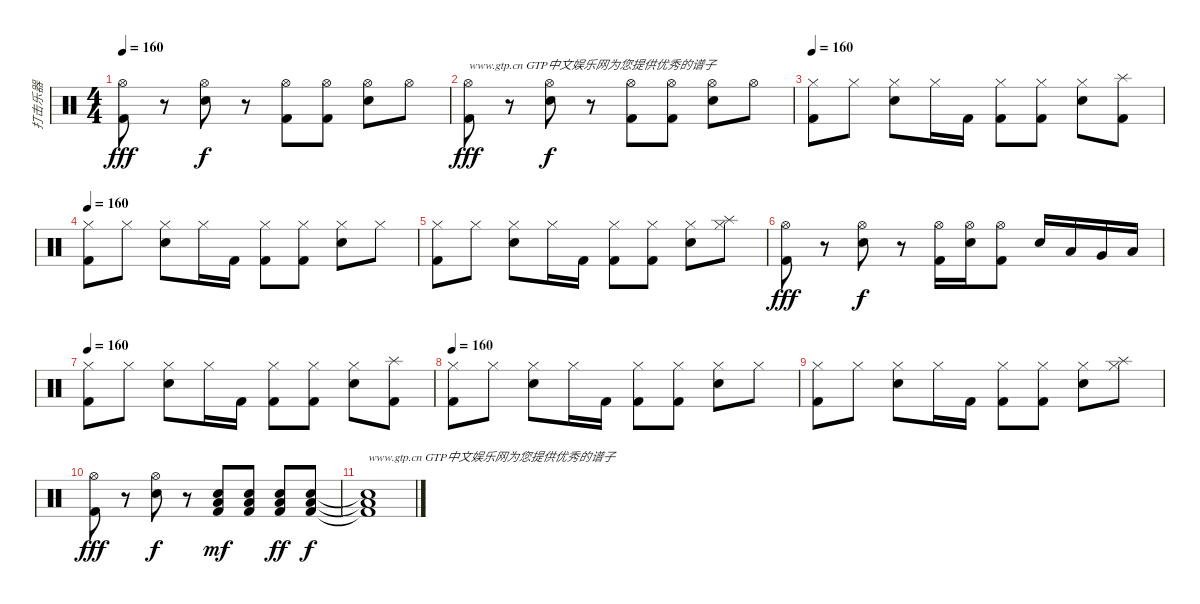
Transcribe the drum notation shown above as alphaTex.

\track ("打击乐器" "打击乐器") {instrument percussion}
\staff {score}
\articulation defaults
\ts (4 4)
\tempo 160
\clef neutral
\ks c
("Hi-Hat (open)" "Kick (hit) 2").8{dy fff} r.8 ("Hi-Hat (open)" "Electric Snare (hit)").8{dy f} r.8 ("Hi-Hat (open)" "Kick (hit) 2").8 ("Hi-Hat (open)" "Kick (hit) 2").8 ("Hi-Hat (open)" "Electric Snare (hit)").8 "Hi-Hat (open)".8 |
("Hi-Hat (open)" "Kick (hit) 2").8{txt "www.gtp.cn GTP中文娱乐网为您提供优秀的谱子" dy fff} r.8 ("Hi-Hat (open)" "Electric Snare (hit)").8{dy f} r.8 ("Hi-Hat (open)" "Kick (hit) 2").8 ("Hi-Hat (open)" "Kick (hit) 2").8 ("Hi-Hat (open)" "Electric Snare (hit)").8 "Hi-Hat (open)".8 |
\tempo 160
("Kick (hit) 2" "Hi-Hat (closed)").8 "Hi-Hat (closed)".8 ("Electric Snare (hit)" "Hi-Hat (closed)").8 "Hi-Hat (closed)".16 "Kick (hit) 2".16 ("Kick (hit) 2" "Hi-Hat (closed)").8 ("Kick (hit) 2" "Hi-Hat (closed)").8 ("Electric Snare (hit)" "Hi-Hat (closed)").8 ("Kick (hit) 2" "Splash (hit)").8 |
\tempo 160
("Kick (hit) 2" "Hi-Hat (closed)").8 "Hi-Hat (closed)".8 ("Electric Snare (hit)" "Hi-Hat (closed)").8 "Hi-Hat (closed)".16 "Kick (hit) 2".16 ("Kick (hit) 2" "Hi-Hat (closed)").8 ("Kick (hit) 2" "Hi-Hat (closed)").8 ("Electric Snare (hit)" "Hi-Hat (closed)").8 "Hi-Hat (closed)".8 |
("Kick (hit) 2" "Hi-Hat (closed)").8 "Hi-Hat (closed)".8 ("Electric Snare (hit)" "Hi-Hat (closed)").8 "Hi-Hat (closed)".16 "Kick (hit) 2".16 ("Kick (hit) 2" "Hi-Hat (closed)").8 ("Kick (hit) 2" "Hi-Hat (closed)").8 ("Electric Snare (hit)" "Hi-Hat (closed)").8 ("Splash (hit)" "Hi-Hat (closed)").8 |
("Hi-Hat (open)" "Kick (hit) 2").8{dy fff} r.8 ("Hi-Hat (open)" "Electric Snare (hit)").8{dy f} r.8 ("Hi-Hat (open)" "Kick (hit) 2").16 ("Hi-Hat (open)" "Electric Snare (hit)").16 ("Hi-Hat (open)" "Kick (hit) 2").8 "Electric Snare (hit)".16 "Low Tom (hit)".16 "Very Low Tom (hit)".16 "Low Floor Tom (hit)".16 |
\tempo 160
("Kick (hit) 2" "Hi-Hat (closed)").8 "Hi-Hat (closed)".8 ("Electric Snare (hit)" "Hi-Hat (closed)").8 "Hi-Hat (closed)".16 "Kick (hit) 2".16 ("Kick (hit) 2" "Hi-Hat (closed)").8 ("Kick (hit) 2" "Hi-Hat (closed)").8 ("Electric Snare (hit)" "Hi-Hat (closed)").8 ("Kick (hit) 2" "Splash (hit)").8 |
\tempo 160
("Kick (hit) 2" "Hi-Hat (closed)").8 "Hi-Hat (closed)".8 ("Electric Snare (hit)" "Hi-Hat (closed)").8 "Hi-Hat (closed)".16 "Kick (hit) 2".16 ("Kick (hit) 2" "Hi-Hat (closed)").8 ("Kick (hit) 2" "Hi-Hat (closed)").8 ("Electric Snare (hit)" "Hi-Hat (closed)").8 "Hi-Hat (closed)".8 |
("Kick (hit) 2" "Hi-Hat (closed)").8 "Hi-Hat (closed)".8 ("Electric Snare (hit)" "Hi-Hat (closed)").8 "Hi-Hat (closed)".16 "Kick (hit) 2".16 ("Kick (hit) 2" "Hi-Hat (closed)").8 ("Kick (hit) 2" "Hi-Hat (closed)").8 ("Electric Snare (hit)" "Hi-Hat (closed)").8 ("Splash (hit)" "Hi-Hat (closed)").8 |
("Hi-Hat (open)" "Kick (hit) 2").8{dy fff} r.8 ("Hi-Hat (open)" "Electric Snare (hit)").8{dy f} r.8 ("Low Floor Tom (hit)" "Snare (hit) 2" "Kick (hit) 2").8{dy mf} ("Low Floor Tom (hit)" "Snare (hit) 2" "Kick (hit) 2").8 ("Low Floor Tom (hit)" "Snare (hit) 2" "Kick (hit) 2").8{dy ff} ("Low Floor Tom (hit)" "Snare (hit) 2" "Kick (hit) 2").8{dy f} |
("Low Floor Tom (hit)"{t} "Snare (hit) 2"{t} "Kick (hit) 2"{t}).1{txt "www.gtp.cn GTP中文娱乐网为您提供优秀的谱子"}
